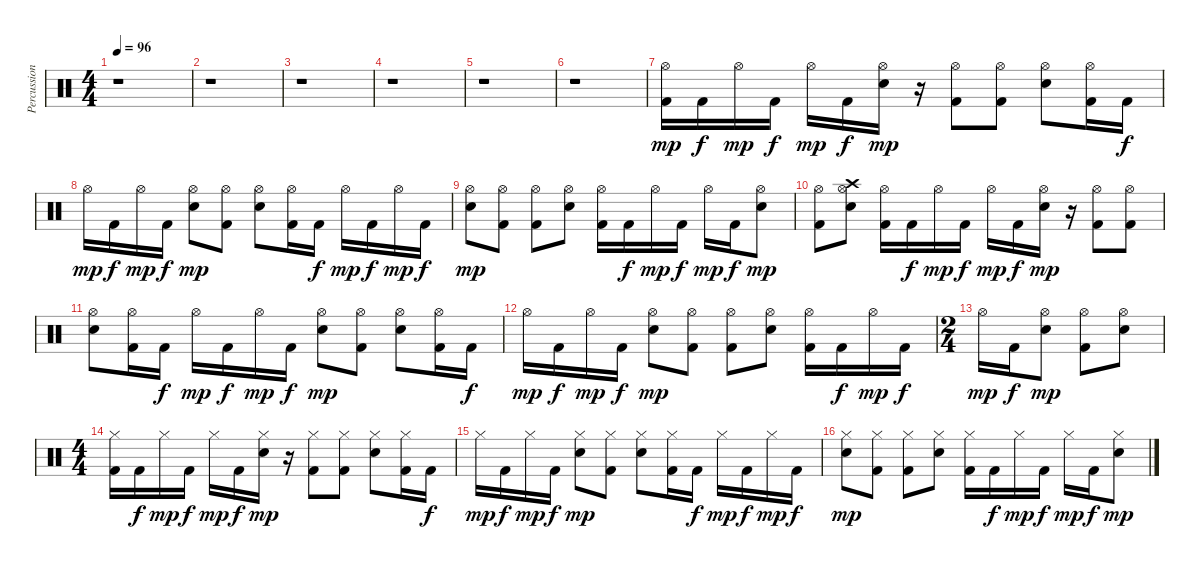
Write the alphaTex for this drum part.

\track ("Percussions" "Percussion") {instrument percussion}
\staff {score}
\articulation defaults
\ts (4 4)
\tempo 96
\clef neutral
\ks c
r.1{dy mp} |
r.1 |
r.1 |
r.1 |
r.1 |
r.1 |
("Hi-Hat (open)" "Kick (hit) 2").16 "Kick (hit) 2".16{dy f} "Hi-Hat (open)".16{dy mp} "Kick (hit) 2".16{dy f} "Hi-Hat (open)".16{dy mp} "Kick (hit) 2".16{dy f} ("Hi-Hat (open)" "Snare (hit) 2").16{dy mp} r.16 ("Hi-Hat (open)" "Kick (hit) 2").8 ("Hi-Hat (open)" "Kick (hit) 2").8 ("Hi-Hat (open)" "Snare (hit) 2").8 ("Hi-Hat (open)" "Kick (hit) 2").16 "Kick (hit) 2".16{dy f} |
"Hi-Hat (open)".16{dy mp} "Kick (hit) 2".16{dy f} "Hi-Hat (open)".16{dy mp} "Kick (hit) 2".16{dy f} ("Hi-Hat (open)" "Snare (hit) 2").8{dy mp} ("Hi-Hat (open)" "Kick (hit) 2").8 ("Hi-Hat (open)" "Snare (hit) 2").8 ("Hi-Hat (open)" "Kick (hit) 2").16 "Kick (hit) 2".16{dy f} "Hi-Hat (open)".16{dy mp} "Kick (hit) 2".16{dy f} "Hi-Hat (open)".16{dy mp} "Kick (hit) 2".16{dy f} |
("Hi-Hat (open)" "Snare (hit) 2").8{dy mp} ("Hi-Hat (open)" "Kick (hit) 2").8 ("Hi-Hat (open)" "Kick (hit) 2").8 ("Hi-Hat (open)" "Snare (hit) 2").8 ("Hi-Hat (open)" "Kick (hit) 2").16 "Kick (hit) 2".16{dy f} "Hi-Hat (open)".16{dy mp} "Kick (hit) 2".16{dy f} "Hi-Hat (open)".16{dy mp} "Kick (hit) 2".16{dy f} ("Hi-Hat (open)" "Snare (hit) 2").8{dy mp} |
("Hi-Hat (open)" "Kick (hit) 2").8 ("Hi-Hat (open)" "Crash high (hit)" "Snare (hit) 2").8 ("Hi-Hat (open)" "Kick (hit) 2").16 "Kick (hit) 2".16{dy f} "Hi-Hat (open)".16{dy mp} "Kick (hit) 2".16{dy f} "Hi-Hat (open)".16{dy mp} "Kick (hit) 2".16{dy f} ("Hi-Hat (open)" "Snare (hit) 2").16{dy mp} r.16 ("Hi-Hat (open)" "Kick (hit) 2").8 ("Hi-Hat (open)" "Kick (hit) 2").8 |
("Hi-Hat (open)" "Snare (hit) 2").8 ("Hi-Hat (open)" "Kick (hit) 2").16 "Kick (hit) 2".16{dy f} "Hi-Hat (open)".16{dy mp} "Kick (hit) 2".16{dy f} "Hi-Hat (open)".16{dy mp} "Kick (hit) 2".16{dy f} ("Hi-Hat (open)" "Snare (hit) 2").8{dy mp} ("Hi-Hat (open)" "Kick (hit) 2").8 ("Hi-Hat (open)" "Snare (hit) 2").8 ("Hi-Hat (open)" "Kick (hit) 2").16 "Kick (hit) 2".16{dy f} |
"Hi-Hat (open)".16{dy mp} "Kick (hit) 2".16{dy f} "Hi-Hat (open)".16{dy mp} "Kick (hit) 2".16{dy f} ("Hi-Hat (open)" "Snare (hit) 2").8{dy mp} ("Hi-Hat (open)" "Kick (hit) 2").8 ("Hi-Hat (open)" "Kick (hit) 2").8 ("Hi-Hat (open)" "Snare (hit) 2").8 ("Hi-Hat (open)" "Kick (hit) 2").16 "Kick (hit) 2".16{dy f} "Hi-Hat (open)".16{dy mp} "Kick (hit) 2".16{dy f} |
\ts (2 4)
"Hi-Hat (open)".16{dy mp} "Kick (hit) 2".16{dy f} ("Hi-Hat (open)" "Snare (hit) 2").8{dy mp} ("Hi-Hat (open)" "Kick (hit) 2").8 ("Hi-Hat (open)" "Snare (hit) 2").8 |
\ts (4 4)
("Hi-Hat (closed)" "Kick (hit) 2").16 "Kick (hit) 2".16{dy f} "Hi-Hat (closed)".16{dy mp} "Kick (hit) 2".16{dy f} "Hi-Hat (closed)".16{dy mp} "Kick (hit) 2".16{dy f} ("Hi-Hat (closed)" "Snare (hit) 2").16{dy mp} r.16 ("Hi-Hat (closed)" "Kick (hit) 2").8 ("Hi-Hat (closed)" "Kick (hit) 2").8 ("Hi-Hat (closed)" "Snare (hit) 2").8 ("Hi-Hat (closed)" "Kick (hit) 2").16 "Kick (hit) 2".16{dy f} |
"Hi-Hat (closed)".16{dy mp} "Kick (hit) 2".16{dy f} "Hi-Hat (closed)".16{dy mp} "Kick (hit) 2".16{dy f} ("Hi-Hat (closed)" "Snare (hit) 2").8{dy mp} ("Hi-Hat (closed)" "Kick (hit) 2").8 ("Hi-Hat (closed)" "Snare (hit) 2").8 ("Hi-Hat (closed)" "Kick (hit) 2").16 "Kick (hit) 2".16{dy f} "Hi-Hat (closed)".16{dy mp} "Kick (hit) 2".16{dy f} "Hi-Hat (closed)".16{dy mp} "Kick (hit) 2".16{dy f} |
("Hi-Hat (closed)" "Snare (hit) 2").8{dy mp} ("Hi-Hat (closed)" "Kick (hit) 2").8 ("Hi-Hat (closed)" "Kick (hit) 2").8 ("Hi-Hat (closed)" "Snare (hit) 2").8 ("Hi-Hat (closed)" "Kick (hit) 2").16 "Kick (hit) 2".16{dy f} "Hi-Hat (closed)".16{dy mp} "Kick (hit) 2".16{dy f} "Hi-Hat (closed)".16{dy mp} "Kick (hit) 2".16{dy f} ("Hi-Hat (closed)" "Snare (hit) 2").8{dy mp}
